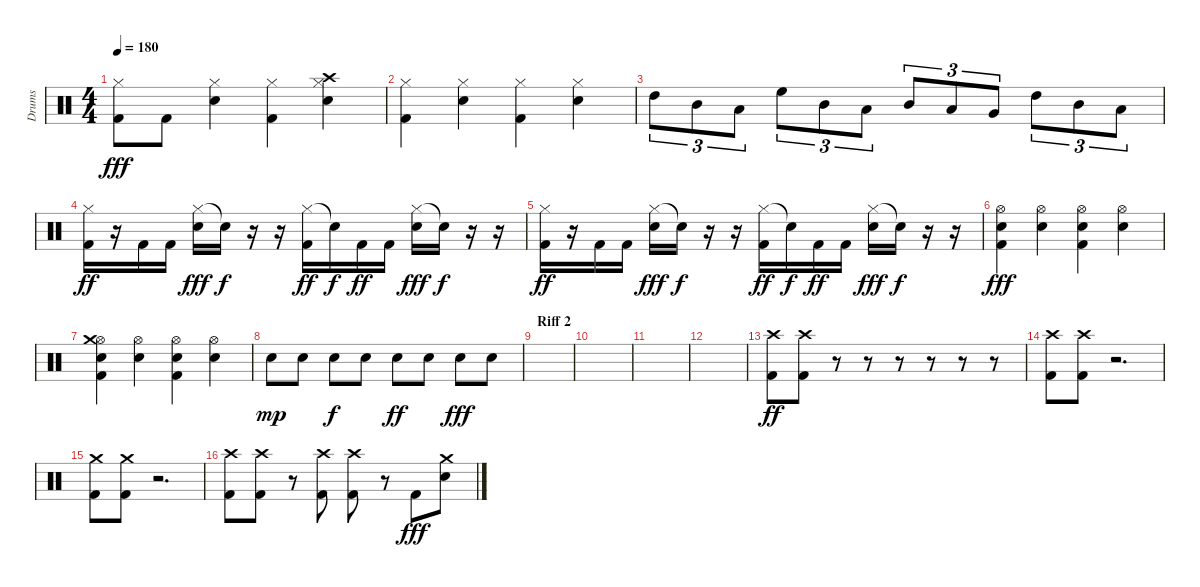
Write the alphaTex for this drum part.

\track ("Drums" "Drums") {instrument percussion}
\staff {score}
\articulation defaults
\ts (4 4)
\tempo 180
\clef neutral
\ks c
("Hi-Hat (closed)" "Kick (hit) 2").8{dy fff} "Kick (hit) 2".8 ("Hi-Hat (closed)" "Snare (hit) 2").4 ("Hi-Hat (closed)" "Kick (hit) 2").4 ("Hi-Hat (closed)" "Crash high (hit)" "Snare (hit) 2").4 |
("Hi-Hat (closed)" "Kick (hit) 2").4 ("Hi-Hat (closed)" "Snare (hit) 2").4 ("Hi-Hat (closed)" "Kick (hit) 2").4 ("Hi-Hat (closed)" "Snare (hit) 2").4 |
"High Tom (hit)".8{tu (3 2)} "Mid Tom (hit)".8{tu (3 2)} "Low Tom (hit)".8{tu (3 2)} "High Floor Tom (hit)".8{tu (3 2)} "Mid Tom (hit)".8{tu (3 2)} "Low Tom (hit)".8{tu (3 2)} "Mid Tom (hit)".8{tu (3 2)} "Low Tom (hit)".8{tu (3 2)} "Very Low Tom (hit)".8{tu (3 2)} "High Tom (hit)".8{tu (3 2)} "Mid Tom (hit)".8{tu (3 2)} "Low Tom (hit)".8{tu (3 2)} |
("Hi-Hat (closed)" "Kick (hit) 2").16{dy ff} r.16 "Kick (hit) 2".16 "Kick (hit) 2".16 ("Hi-Hat (closed)" "Snare (hit) 2").16{dy fff} "Snare (hit)"{t}.16{dy f} r.16 r.16 ("Hi-Hat (closed)" "Kick (hit) 2").16{dy ff} "Snare (hit)"{t}.16{dy f} "Kick (hit) 2".16{dy ff} "Kick (hit) 2".16 ("Hi-Hat (closed)" "Snare (hit) 2").16{dy fff} "Snare (hit)"{t}.16{dy f} r.16 r.16 |
("Hi-Hat (closed)" "Kick (hit) 2").16{dy ff} r.16 "Kick (hit) 2".16 "Kick (hit) 2".16 ("Hi-Hat (closed)" "Snare (hit) 2").16{dy fff} "Snare (hit)"{t}.16{dy f} r.16 r.16 ("Hi-Hat (closed)" "Kick (hit) 2").16{dy ff} "Snare (hit)"{t}.16{dy f} "Kick (hit) 2".16{dy ff} "Kick (hit) 2".16 ("Hi-Hat (closed)" "Snare (hit) 2").16{dy fff} "Snare (hit)"{t}.16{dy f} r.16 r.16 |
("Hi-Hat (open)" "Snare (hit) 2" "Kick (hit) 2").4{dy fff} ("Hi-Hat (open)" "Snare (hit) 2").4 ("Hi-Hat (open)" "Snare (hit) 2" "Kick (hit) 2").4 ("Hi-Hat (open)" "Snare (hit) 2").4 |
("Hi-Hat (open)" "Crash medium (hit)" "Snare (hit) 2" "Kick (hit) 2").4 ("Hi-Hat (open)" "Snare (hit) 2").4 ("Hi-Hat (open)" "Snare (hit) 2" "Kick (hit) 2").4 ("Hi-Hat (open)" "Snare (hit) 2").4 |
"Snare (hit) 2".8{dy mp} "Snare (hit) 2".8 "Snare (hit) 2".8{dy f} "Snare (hit) 2".8 "Snare (hit) 2".8{dy ff} "Snare (hit) 2".8 "Snare (hit) 2".8{dy fff} "Snare (hit) 2".8 |
\section ("" "Riff 2")
|
|
|
|
("Crash high (hit)" "Kick (hit) 2").8{dy ff} ("Crash high (hit)" "Kick (hit) 2").8 r.8 r.8 r.8 r.8 r.8 r.8 |
("Crash high (hit)" "Kick (hit) 2").8 ("Crash high (hit)" "Kick (hit) 2").8 r.2{d} |
("Crash medium (hit)" "Kick (hit) 2").8 ("Crash medium (hit)" "Kick (hit) 2").8 r.2{d} |
("Crash high (hit)" "Kick (hit) 2").8 ("Crash high (hit)" "Kick (hit) 2").8 r.8 ("Crash high (hit)" "Kick (hit) 2").8 ("Crash high (hit)" "Kick (hit) 2").8 r.8 "Kick (hit) 2".8{dy fff} ("Crash medium (hit)" "Snare (hit) 2").8
